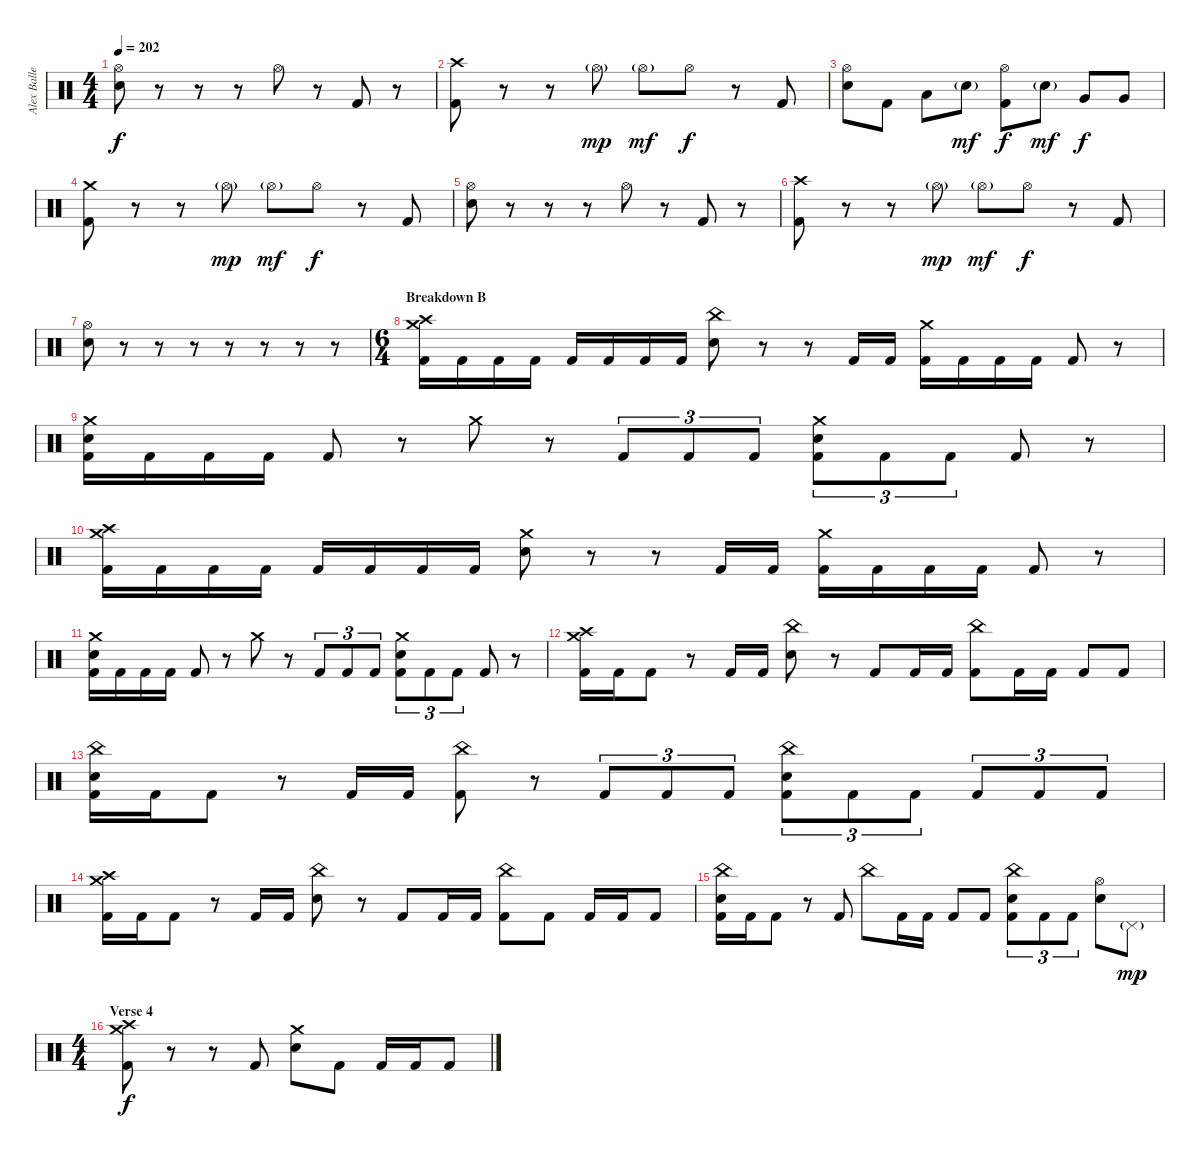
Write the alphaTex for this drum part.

\track ("Alex Ballew" "Alex Balle") {instrument percussion}
\staff {score}
\articulation defaults
\ts (4 4)
\tempo 202
\clef neutral
\ks c
("Hi-Hat (open)" "Electric Snare (hit)").8{dy f} r.8 r.8 r.8 "Hi-Hat (open)".8 r.8 "Kick (hit) 2".8 r.8 |
("Crash high (hit)" "Kick (hit) 2").8 r.8 r.8 "Hi-Hat (open)"{g}.8{dy mp} "Hi-Hat (open)"{g}.8{dy mf} "Hi-Hat (open)".8{dy f} r.8 "Kick (hit) 2".8 |
("Hi-Hat (open)" "Electric Snare (hit)").8 "Kick (hit) 2".8 "Low Tom (hit)".8 "Snare (hit) 2"{g}.8{dy mf} ("Hi-Hat (open)" "Kick (hit) 2").8{dy f} "Snare (hit) 2"{g}.8{dy mf} "Very Low Tom (hit)".8{dy f} "Very Low Tom (hit)".8 |
("Crash medium (hit)" "Kick (hit) 2").8 r.8 r.8 "Hi-Hat (open)"{g}.8{dy mp} "Hi-Hat (open)"{g}.8{dy mf} "Hi-Hat (open)".8{dy f} r.8 "Kick (hit) 2".8 |
("Hi-Hat (open)" "Electric Snare (hit)").8 r.8 r.8 r.8 "Hi-Hat (open)".8 r.8 "Kick (hit) 2".8 r.8 |
("Crash high (hit)" "Kick (hit) 2").8 r.8 r.8 "Hi-Hat (open)"{g}.8{dy mp} "Hi-Hat (open)"{g}.8{dy mf} "Hi-Hat (open)".8{dy f} r.8 "Kick (hit) 2".8 |
("Hi-Hat (open)" "Electric Snare (hit)").8 r.8 r.8 r.8 r.8 r.8 r.8 r.8 |
\ts (6 4)
\section ("" "Breakdown B")
("Crash medium (hit)" "Crash high (hit)" "Kick (hit) 2").16 "Kick (hit) 2".16 "Kick (hit) 2".16 "Kick (hit) 2".16 "Kick (hit) 2".16 "Kick (hit) 2".16 "Kick (hit) 2".16 "Kick (hit) 2".16 ("China (hit)" "Electric Snare (hit)").8 r.8 r.8 "Kick (hit) 2".16 "Kick (hit) 2".16 ("Crash medium (hit)" "Kick (hit) 2").16 "Kick (hit) 2".16 "Kick (hit) 2".16 "Kick (hit) 2".16 "Kick (hit) 2".8 r.8 |
("Crash medium (hit)" "Electric Snare (hit)" "Kick (hit) 2").16 "Kick (hit) 2".16 "Kick (hit) 2".16 "Kick (hit) 2".16 "Kick (hit) 2".8 r.8 "Crash medium (hit)".8 r.8 "Kick (hit) 2".8{tu (3 2)} "Kick (hit) 2".8{tu (3 2)} "Kick (hit) 2".8{tu (3 2)} ("Crash medium (hit)" "Electric Snare (hit)" "Kick (hit) 2").8{tu (3 2)} "Kick (hit) 2".8{tu (3 2)} "Kick (hit) 2".8{tu (3 2)} "Kick (hit) 2".8 r.8 |
("Crash medium (hit)" "Crash high (hit)" "Kick (hit) 2").16 "Kick (hit) 2".16 "Kick (hit) 2".16 "Kick (hit) 2".16 "Kick (hit) 2".16 "Kick (hit) 2".16 "Kick (hit) 2".16 "Kick (hit) 2".16 ("Crash medium (hit)" "Electric Snare (hit)").8 r.8 r.8 "Kick (hit) 2".16 "Kick (hit) 2".16 ("Crash medium (hit)" "Kick (hit) 2").16 "Kick (hit) 2".16 "Kick (hit) 2".16 "Kick (hit) 2".16 "Kick (hit) 2".8 r.8 |
("Crash medium (hit)" "Electric Snare (hit)" "Kick (hit) 2").16 "Kick (hit) 2".16 "Kick (hit) 2".16 "Kick (hit) 2".16 "Kick (hit) 2".8 r.8 "Crash medium (hit)".8 r.8 "Kick (hit) 2".8{tu (3 2)} "Kick (hit) 2".8{tu (3 2)} "Kick (hit) 2".8{tu (3 2)} ("Crash medium (hit)" "Electric Snare (hit)" "Kick (hit) 2").8{tu (3 2)} "Kick (hit) 2".8{tu (3 2)} "Kick (hit) 2".8{tu (3 2)} "Kick (hit) 2".8 r.8 |
("Crash medium (hit)" "Crash high (hit)" "Kick (hit) 2").16 "Kick (hit) 2".16 "Kick (hit) 2".8 r.8 "Kick (hit) 2".16 "Kick (hit) 2".16 ("China (hit)" "Electric Snare (hit)").8 r.8 "Kick (hit) 2".8 "Kick (hit) 2".16 "Kick (hit) 2".16 ("China (hit)" "Kick (hit) 2").8 "Kick (hit) 2".16 "Kick (hit) 2".16 "Kick (hit) 2".8 "Kick (hit) 2".8 |
("China (hit)" "Electric Snare (hit)" "Kick (hit) 2").16 "Kick (hit) 2".16 "Kick (hit) 2".8 r.8 "Kick (hit) 2".16 "Kick (hit) 2".16 ("China (hit)" "Kick (hit) 2").8 r.8 "Kick (hit) 2".8{tu (3 2)} "Kick (hit) 2".8{tu (3 2)} "Kick (hit) 2".8{tu (3 2)} ("China (hit)" "Electric Snare (hit)" "Kick (hit) 2").8{tu (3 2)} "Kick (hit) 2".8{tu (3 2)} "Kick (hit) 2".8{tu (3 2)} "Kick (hit) 2".8{tu (3 2)} "Kick (hit) 2".8{tu (3 2)} "Kick (hit) 2".8{tu (3 2)} |
("Crash medium (hit)" "Crash high (hit)" "Kick (hit) 2").16 "Kick (hit) 2".16 "Kick (hit) 2".8 r.8 "Kick (hit) 2".16 "Kick (hit) 2".16 ("China (hit)" "Electric Snare (hit)").8 r.8 "Kick (hit) 2".8 "Kick (hit) 2".16 "Kick (hit) 2".16 ("China (hit)" "Kick (hit) 2").8 "Kick (hit) 2".8 "Kick (hit) 2".16 "Kick (hit) 2".16 "Kick (hit) 2".8 |
("China (hit)" "Electric Snare (hit)" "Kick (hit) 2").16 "Kick (hit) 2".16 "Kick (hit) 2".8 r.8 "Kick (hit) 2".8 "China (hit)".8 "Kick (hit) 2".16 "Kick (hit) 2".16 "Kick (hit) 2".8 "Kick (hit) 2".8 ("China (hit)" "Electric Snare (hit)" "Kick (hit) 2").8{tu (3 2)} "Kick (hit) 2".8{tu (3 2)} "Kick (hit) 2".8{tu (3 2)} ("Hi-Hat (open)" "Electric Snare (hit)").8 "Pedal Hi-Hat (hit)"{g}.8{dy mp} |
\ts (4 4)
\section ("" "Verse 4")
("Crash medium (hit)" "Crash high (hit)" "Kick (hit) 2").8{dy f} r.8 r.8 "Kick (hit) 2".8 ("Crash medium (hit)" "Electric Snare (hit)").8 "Kick (hit) 2".8 "Kick (hit) 2".16 "Kick (hit) 2".16 "Kick (hit) 2".8
